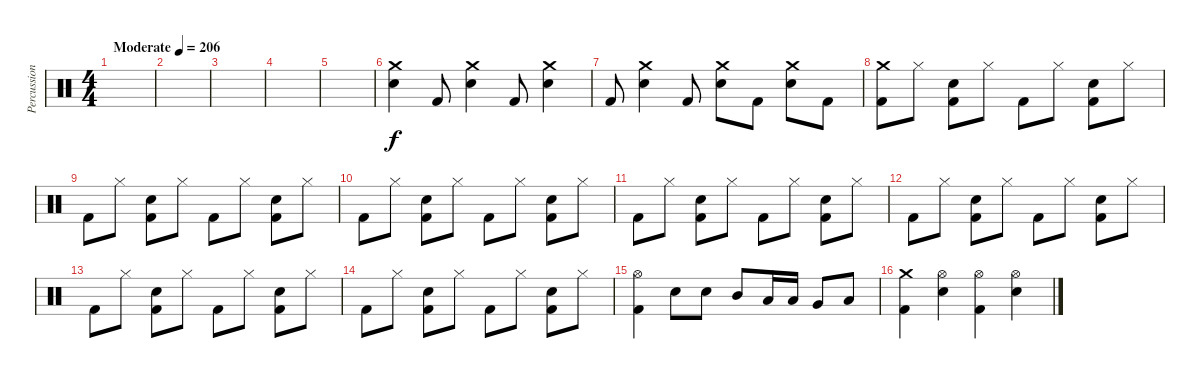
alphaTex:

\track ("Percussion" "Percussion") {instrument percussion}
\staff {score}
\articulation defaults
\ts (4 4)
\tempo (206 "Moderate")
\clef neutral
\ks c
|
|
|
|
|
("Crash medium (hit)" "Electric Snare (hit)").4 "Kick (hit) 2".8 ("Crash medium (hit)" "Electric Snare (hit)").4 "Kick (hit) 2".8 ("Crash medium (hit)" "Electric Snare (hit)").4 |
"Kick (hit) 2".8 ("Crash medium (hit)" "Electric Snare (hit)").4 "Kick (hit) 2".8 ("Crash medium (hit)" "Electric Snare (hit)").8 "Kick (hit) 2".8 ("Crash medium (hit)" "Electric Snare (hit)").8 "Kick (hit) 2".8 |
("Crash medium (hit)" "Kick (hit) 2").8 "Hi-Hat (closed)".8 ("Electric Snare (hit)" "Kick (hit) 2").8 "Hi-Hat (closed)".8 "Kick (hit) 2".8 "Hi-Hat (closed)".8 ("Electric Snare (hit)" "Kick (hit) 2").8 "Hi-Hat (closed)".8 |
"Kick (hit) 2".8 "Hi-Hat (closed)".8 ("Electric Snare (hit)" "Kick (hit) 2").8 "Hi-Hat (closed)".8 "Kick (hit) 2".8 "Hi-Hat (closed)".8 ("Electric Snare (hit)" "Kick (hit) 2").8 "Hi-Hat (closed)".8 |
"Kick (hit) 2".8 "Hi-Hat (closed)".8 ("Electric Snare (hit)" "Kick (hit) 2").8 "Hi-Hat (closed)".8 "Kick (hit) 2".8 "Hi-Hat (closed)".8 ("Electric Snare (hit)" "Kick (hit) 2").8 "Hi-Hat (closed)".8 |
"Kick (hit) 2".8 "Hi-Hat (closed)".8 ("Electric Snare (hit)" "Kick (hit) 2").8 "Hi-Hat (closed)".8 "Kick (hit) 2".8 "Hi-Hat (closed)".8 ("Electric Snare (hit)" "Kick (hit) 2").8 "Hi-Hat (closed)".8 |
"Kick (hit) 2".8 "Hi-Hat (closed)".8 ("Electric Snare (hit)" "Kick (hit) 2").8 "Hi-Hat (closed)".8 "Kick (hit) 2".8 "Hi-Hat (closed)".8 ("Electric Snare (hit)" "Kick (hit) 2").8 "Hi-Hat (closed)".8 |
"Kick (hit) 2".8 "Hi-Hat (closed)".8 ("Electric Snare (hit)" "Kick (hit) 2").8 "Hi-Hat (closed)".8 "Kick (hit) 2".8 "Hi-Hat (closed)".8 ("Electric Snare (hit)" "Kick (hit) 2").8 "Hi-Hat (closed)".8 |
"Kick (hit) 2".8 "Hi-Hat (closed)".8 ("Electric Snare (hit)" "Kick (hit) 2").8 "Hi-Hat (closed)".8 "Kick (hit) 2".8 "Hi-Hat (closed)".8 ("Electric Snare (hit)" "Kick (hit) 2").8 "Hi-Hat (closed)".8 |
("Hi-Hat (open)" "Kick (hit) 2").4 "Electric Snare (hit)".8 "Electric Snare (hit)".8 "Mid Tom (hit)".8 "Low Tom (hit)".16 "Low Tom (hit)".16 "Very Low Tom (hit)".8 "Low Floor Tom (hit)".8 |
("Crash medium (hit)" "Kick (hit) 2").4 ("Hi-Hat (open)" "Electric Snare (hit)").4 ("Hi-Hat (open)" "Kick (hit) 2").4 ("Hi-Hat (open)" "Electric Snare (hit)").4
